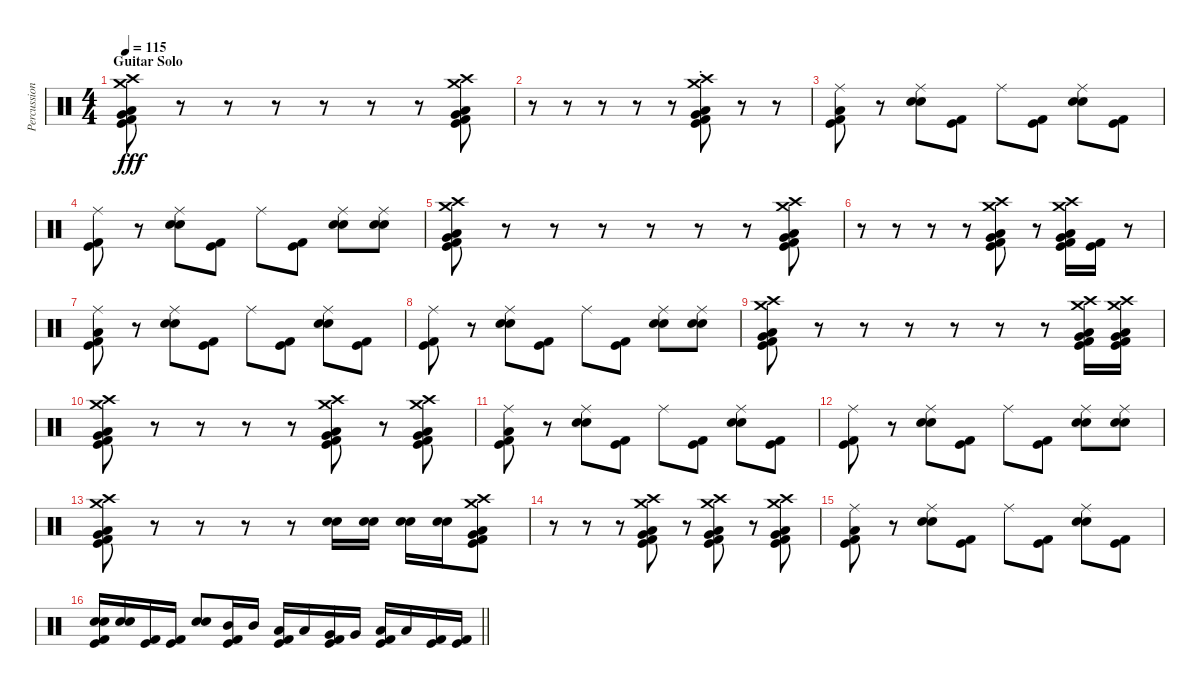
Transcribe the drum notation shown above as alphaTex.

\track ("Percussion" "Percussion") {instrument percussion}
\staff {score}
\articulation defaults
\ts (4 4)
\section ("" "Guitar Solo")
\tempo 115
\clef neutral
\ks c
("Crash medium (hit)" "Crash high (hit)" "Very Low Tom (hit)" "Low Floor Tom (hit)" "Kick (hit) 2" "Kick (hit)").8{dy fff} r.8 r.8 r.8 r.8 r.8 r.8 ("Crash medium (hit)" "Crash high (hit)" "Very Low Tom (hit)" "Low Floor Tom (hit)" "Kick (hit) 2" "Kick (hit)").8 |
r.8 r.8 r.8 r.8 r.8 ("Crash medium (hit)"{st} "Crash high (hit)"{st} "Very Low Tom (hit)" "Low Floor Tom (hit)" "Kick (hit) 2" "Kick (hit)").8 r.8 r.8 |
("Ride (middle)" "Low Floor Tom (hit)" "Kick (hit) 2" "Kick (hit)").8 r.8 ("Ride (middle)" "Electric Snare (hit)" "Snare (hit) 2").8 ("Kick (hit) 2" "Kick (hit)").8 "Ride (middle)".8 ("Kick (hit) 2" "Kick (hit)").8 ("Ride (middle)" "Electric Snare (hit)" "Snare (hit) 2").8 ("Kick (hit) 2" "Kick (hit)").8 |
("Ride (middle)" "Kick (hit) 2" "Kick (hit)").8 r.8 ("Ride (middle)" "Electric Snare (hit)" "Snare (hit) 2").8 ("Kick (hit) 2" "Kick (hit)").8 "Ride (middle)".8 ("Kick (hit) 2" "Kick (hit)").8 ("Ride (middle)" "Electric Snare (hit)" "Snare (hit) 2").8 ("Ride (middle)" "Electric Snare (hit)" "Snare (hit) 2").8 |
("Crash medium (hit)" "Crash high (hit)" "Very Low Tom (hit)" "Low Floor Tom (hit)" "Kick (hit) 2" "Kick (hit)").8 r.8 r.8 r.8 r.8 r.8 r.8 ("Crash medium (hit)" "Crash high (hit)" "Very Low Tom (hit)" "Low Floor Tom (hit)" "Kick (hit) 2" "Kick (hit)").8 |
r.8 r.8 r.8 r.8 ("Crash medium (hit)" "Crash high (hit)" "Very Low Tom (hit)" "Low Floor Tom (hit)" "Kick (hit) 2" "Kick (hit)").8 r.8 ("Crash medium (hit)" "Crash high (hit)" "Very Low Tom (hit)" "Low Floor Tom (hit)" "Kick (hit) 2" "Kick (hit)").16 ("Kick (hit) 2" "Kick (hit)").16 r.8 |
("Ride (middle)" "Low Floor Tom (hit)" "Kick (hit) 2" "Kick (hit)").8 r.8 ("Ride (middle)" "Electric Snare (hit)" "Snare (hit) 2").8 ("Kick (hit) 2" "Kick (hit)").8 "Ride (middle)".8 ("Kick (hit) 2" "Kick (hit)").8 ("Ride (middle)" "Electric Snare (hit)" "Snare (hit) 2").8 ("Kick (hit) 2" "Kick (hit)").8 |
("Ride (middle)" "Kick (hit) 2" "Kick (hit)").8 r.8 ("Ride (middle)" "Electric Snare (hit)" "Snare (hit) 2").8 ("Kick (hit) 2" "Kick (hit)").8 "Ride (middle)".8 ("Kick (hit) 2" "Kick (hit)").8 ("Ride (middle)" "Electric Snare (hit)" "Snare (hit) 2").8 ("Ride (middle)" "Electric Snare (hit)" "Snare (hit) 2").8 |
("Crash medium (hit)" "Crash high (hit)" "Very Low Tom (hit)" "Low Floor Tom (hit)" "Kick (hit) 2" "Kick (hit)").8 r.8 r.8 r.8 r.8 r.8 r.8 ("Crash medium (hit)" "Crash high (hit)" "Very Low Tom (hit)" "Low Floor Tom (hit)" "Kick (hit) 2" "Kick (hit)").16 ("Crash medium (hit)" "Crash high (hit)" "Very Low Tom (hit)" "Low Floor Tom (hit)" "Kick (hit) 2" "Kick (hit)").16 |
("Crash medium (hit)" "Crash high (hit)" "Very Low Tom (hit)" "Low Floor Tom (hit)" "Kick (hit) 2" "Kick (hit)").8 r.8 r.8 r.8 r.8 ("Crash medium (hit)" "Crash high (hit)" "Very Low Tom (hit)" "Low Floor Tom (hit)" "Kick (hit) 2" "Kick (hit)").8 r.8 ("Crash medium (hit)" "Crash high (hit)" "Very Low Tom (hit)" "Low Floor Tom (hit)" "Kick (hit) 2" "Kick (hit)").8 |
("Ride (middle)" "Low Floor Tom (hit)" "Kick (hit) 2" "Kick (hit)").8 r.8 ("Ride (middle)" "Electric Snare (hit)" "Snare (hit) 2").8 ("Kick (hit) 2" "Kick (hit)").8 "Ride (middle)".8 ("Kick (hit) 2" "Kick (hit)").8 ("Ride (middle)" "Electric Snare (hit)" "Snare (hit) 2").8 ("Kick (hit) 2" "Kick (hit)").8 |
("Ride (middle)" "Kick (hit) 2" "Kick (hit)").8 r.8 ("Ride (middle)" "Electric Snare (hit)" "Snare (hit) 2").8 ("Kick (hit) 2" "Kick (hit)").8 "Ride (middle)".8 ("Kick (hit) 2" "Kick (hit)").8 ("Ride (middle)" "Electric Snare (hit)" "Snare (hit) 2").8 ("Ride (middle)" "Electric Snare (hit)" "Snare (hit) 2").8 |
("Crash medium (hit)" "Crash high (hit)" "Very Low Tom (hit)" "Low Floor Tom (hit)" "Kick (hit) 2" "Kick (hit)").8 r.8 r.8 r.8 r.8 ("Electric Snare (hit)" "Snare (hit) 2").16 ("Electric Snare (hit)" "Snare (hit) 2").16 ("Electric Snare (hit)" "Snare (hit) 2").16 ("Electric Snare (hit)" "Snare (hit) 2").16 ("Crash medium (hit)" "Crash high (hit)" "Very Low Tom (hit)" "Low Floor Tom (hit)" "Kick (hit) 2" "Kick (hit)").8 |
r.8 r.8 r.8 ("Crash medium (hit)" "Crash high (hit)" "Very Low Tom (hit)" "Low Floor Tom (hit)" "Kick (hit) 2" "Kick (hit)").8 r.8 ("Crash medium (hit)" "Crash high (hit)" "Very Low Tom (hit)" "Low Floor Tom (hit)" "Kick (hit) 2" "Kick (hit)").8 r.8 ("Crash medium (hit)" "Crash high (hit)" "Very Low Tom (hit)" "Low Floor Tom (hit)" "Kick (hit) 2" "Kick (hit)").8 |
("Ride (middle)" "Low Floor Tom (hit)" "Kick (hit) 2" "Kick (hit)").8 r.8 ("Ride (middle)" "Electric Snare (hit)" "Snare (hit) 2").8 ("Kick (hit) 2" "Kick (hit)").8 "Ride (middle)".8 ("Kick (hit) 2" "Kick (hit)").8 ("Ride (middle)" "Electric Snare (hit)" "Snare (hit) 2").8 ("Kick (hit) 2" "Kick (hit)").8 |
\barLineRight lightlight
("Electric Snare (hit)" "Snare (hit) 2" "Kick (hit) 2" "Kick (hit)").16 ("Electric Snare (hit)" "Snare (hit) 2").16 ("Kick (hit) 2" "Kick (hit)").16 ("Kick (hit) 2" "Kick (hit)").16 ("Electric Snare (hit)" "Snare (hit) 2").8 ("Mid Tom (hit)" "Kick (hit) 2" "Kick (hit)").16 "Mid Tom (hit)".16 ("Low Tom (hit)" "Kick (hit) 2" "Kick (hit)").16 "Low Tom (hit)".16 ("Very Low Tom (hit)" "Kick (hit) 2" "Kick (hit)").16 "Very Low Tom (hit)".16 ("Low Floor Tom (hit)" "Kick (hit) 2" "Kick (hit)").16 "Low Floor Tom (hit)".16 ("Kick (hit) 2" "Kick (hit)").16 ("Kick (hit) 2" "Kick (hit)").16
